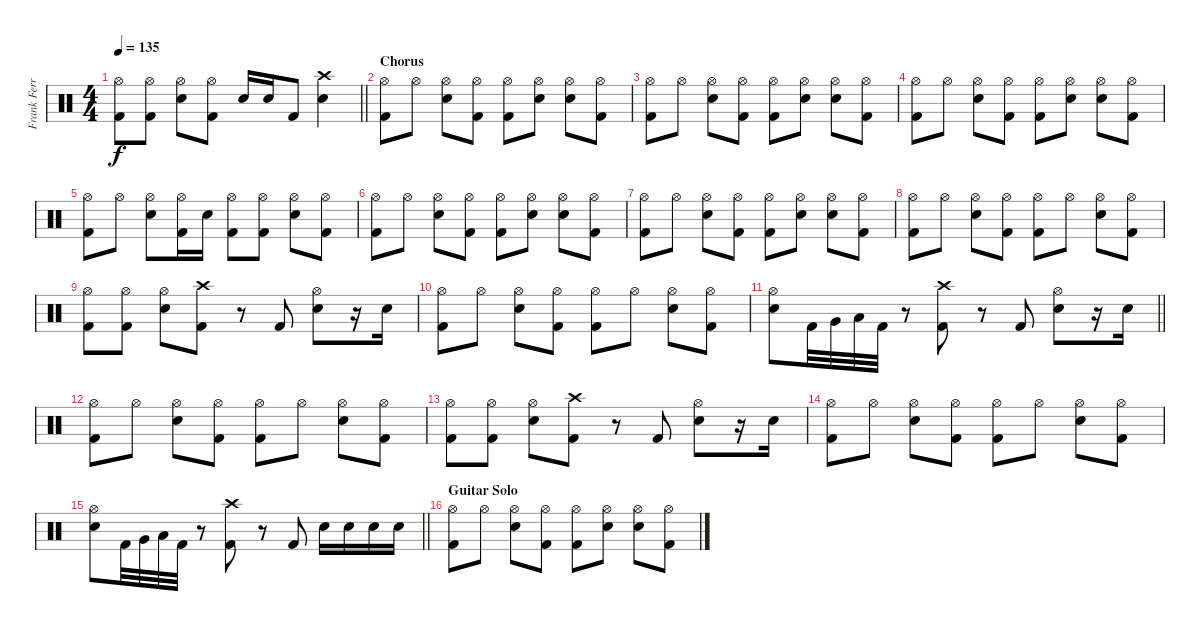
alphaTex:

\track ("Frank Ferrer" "Frank Ferr") {instrument percussion}
\staff {score}
\articulation defaults
\ts (4 4)
\tempo 135
\clef neutral
\barLineRight lightlight
\ks c
("Hi-Hat (open)" "Kick (hit) 2").8{dy f} ("Hi-Hat (open)" "Kick (hit) 2").8 ("Hi-Hat (open)" "Electric Snare (hit)").8 ("Hi-Hat (open)" "Kick (hit) 2").8 "Electric Snare (hit)".16 "Electric Snare (hit)".16 "Kick (hit) 2".8 ("Crash high (hit)" "Electric Snare (hit)").4 |
\section ("" "Chorus")
("Hi-Hat (open)" "Kick (hit) 2").8 "Hi-Hat (open)".8 ("Hi-Hat (open)" "Electric Snare (hit)").8 ("Hi-Hat (open)" "Kick (hit) 2").8 ("Hi-Hat (open)" "Kick (hit) 2").8 ("Hi-Hat (open)" "Electric Snare (hit)").8 ("Hi-Hat (open)" "Electric Snare (hit)").8 ("Hi-Hat (open)" "Kick (hit) 2").8 |
("Hi-Hat (open)" "Kick (hit) 2").8 "Hi-Hat (open)".8 ("Hi-Hat (open)" "Electric Snare (hit)").8 ("Hi-Hat (open)" "Kick (hit) 2").8 ("Hi-Hat (open)" "Kick (hit) 2").8 ("Hi-Hat (open)" "Electric Snare (hit)").8 ("Hi-Hat (open)" "Electric Snare (hit)").8 ("Hi-Hat (open)" "Kick (hit) 2").8 |
("Hi-Hat (open)" "Kick (hit) 2").8 "Hi-Hat (open)".8 ("Hi-Hat (open)" "Electric Snare (hit)").8 ("Hi-Hat (open)" "Kick (hit) 2").8 ("Hi-Hat (open)" "Kick (hit) 2").8 ("Hi-Hat (open)" "Electric Snare (hit)").8 ("Hi-Hat (open)" "Electric Snare (hit)").8 ("Hi-Hat (open)" "Kick (hit) 2").8 |
("Hi-Hat (open)" "Kick (hit) 2").8 "Hi-Hat (open)".8 ("Hi-Hat (open)" "Electric Snare (hit)").8 ("Hi-Hat (open)" "Kick (hit) 2").16 "Electric Snare (hit)".16 ("Hi-Hat (open)" "Kick (hit) 2").8 ("Hi-Hat (open)" "Kick (hit) 2").8 ("Hi-Hat (open)" "Electric Snare (hit)").8 ("Hi-Hat (open)" "Kick (hit) 2").8 |
("Hi-Hat (open)" "Kick (hit) 2").8 "Hi-Hat (open)".8 ("Hi-Hat (open)" "Electric Snare (hit)").8 ("Hi-Hat (open)" "Kick (hit) 2").8 ("Hi-Hat (open)" "Kick (hit) 2").8 ("Hi-Hat (open)" "Electric Snare (hit)").8 ("Hi-Hat (open)" "Electric Snare (hit)").8 ("Hi-Hat (open)" "Kick (hit) 2").8 |
("Hi-Hat (open)" "Kick (hit) 2").8 "Hi-Hat (open)".8 ("Hi-Hat (open)" "Electric Snare (hit)").8 ("Hi-Hat (open)" "Kick (hit) 2").8 ("Hi-Hat (open)" "Kick (hit) 2").8 ("Hi-Hat (open)" "Electric Snare (hit)").8 ("Hi-Hat (open)" "Electric Snare (hit)").8 ("Hi-Hat (open)" "Kick (hit) 2").8 |
("Hi-Hat (open)" "Kick (hit) 2").8 "Hi-Hat (open)".8 ("Hi-Hat (open)" "Electric Snare (hit)").8 ("Hi-Hat (open)" "Kick (hit) 2").8 ("Hi-Hat (open)" "Kick (hit) 2").8 "Hi-Hat (open)".8 ("Hi-Hat (open)" "Electric Snare (hit)").8 ("Hi-Hat (open)" "Kick (hit) 2").8 |
("Hi-Hat (open)" "Kick (hit) 2").8 ("Hi-Hat (open)" "Kick (hit) 2").8 ("Hi-Hat (open)" "Electric Snare (hit)").8 ("Crash high (hit)" "Kick (hit) 2").8 r.8 "Kick (hit) 2".8 ("Hi-Hat (open)" "Electric Snare (hit)").8 r.16 "Electric Snare (hit)".16 |
("Hi-Hat (open)" "Kick (hit) 2").8 "Hi-Hat (open)".8 ("Hi-Hat (open)" "Electric Snare (hit)").8 ("Hi-Hat (open)" "Kick (hit) 2").8 ("Hi-Hat (open)" "Kick (hit) 2").8 "Hi-Hat (open)".8 ("Hi-Hat (open)" "Electric Snare (hit)").8 ("Hi-Hat (open)" "Kick (hit) 2").8 |
\barLineRight lightlight
("Hi-Hat (open)" "Electric Snare (hit)").8 "Kick (hit) 2".32 "Very Low Tom (hit)".32 "Low Tom (hit)".32 "Kick (hit) 2".32 r.8 ("Crash high (hit)" "Kick (hit) 2").8 r.8 "Kick (hit) 2".8 ("Hi-Hat (open)" "Electric Snare (hit)").8 r.16 "Electric Snare (hit)".16 |
("Hi-Hat (open)" "Kick (hit) 2").8 "Hi-Hat (open)".8 ("Hi-Hat (open)" "Electric Snare (hit)").8 ("Hi-Hat (open)" "Kick (hit) 2").8 ("Hi-Hat (open)" "Kick (hit) 2").8 "Hi-Hat (open)".8 ("Hi-Hat (open)" "Electric Snare (hit)").8 ("Hi-Hat (open)" "Kick (hit) 2").8 |
("Hi-Hat (open)" "Kick (hit) 2").8 ("Hi-Hat (open)" "Kick (hit) 2").8 ("Hi-Hat (open)" "Electric Snare (hit)").8 ("Crash high (hit)" "Kick (hit) 2").8 r.8 "Kick (hit) 2".8 ("Hi-Hat (open)" "Electric Snare (hit)").8 r.16 "Electric Snare (hit)".16 |
("Hi-Hat (open)" "Kick (hit) 2").8 "Hi-Hat (open)".8 ("Hi-Hat (open)" "Electric Snare (hit)").8 ("Hi-Hat (open)" "Kick (hit) 2").8 ("Hi-Hat (open)" "Kick (hit) 2").8 "Hi-Hat (open)".8 ("Hi-Hat (open)" "Electric Snare (hit)").8 ("Hi-Hat (open)" "Kick (hit) 2").8 |
\barLineRight lightlight
("Hi-Hat (open)" "Electric Snare (hit)").8 "Kick (hit) 2".32 "Very Low Tom (hit)".32 "Low Tom (hit)".32 "Kick (hit) 2".32 r.8 ("Crash high (hit)" "Kick (hit) 2").8 r.8 "Kick (hit) 2".8 "Electric Snare (hit)".16 "Electric Snare (hit)".16 "Electric Snare (hit)".16 "Electric Snare (hit)".16 |
\section ("" "Guitar Solo")
("Hi-Hat (open)" "Kick (hit) 2").8 "Hi-Hat (open)".8 ("Hi-Hat (open)" "Electric Snare (hit)").8 ("Hi-Hat (open)" "Kick (hit) 2").8 ("Hi-Hat (open)" "Kick (hit) 2").8 ("Hi-Hat (open)" "Electric Snare (hit)").8 ("Hi-Hat (open)" "Electric Snare (hit)").8 ("Hi-Hat (open)" "Kick (hit) 2").8
